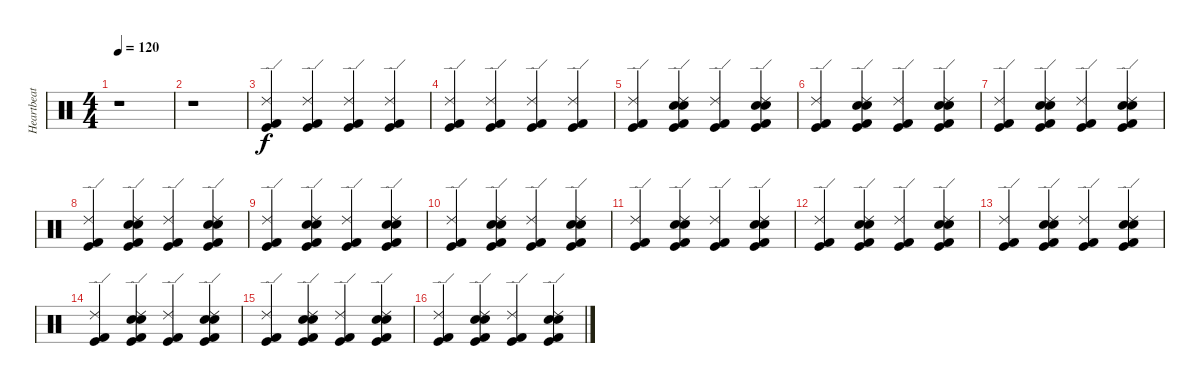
\track ("Heartbeat" "Heartbeat") {instrument percussion}
\staff {score}
\articulation defaults
\ts (4 4)
\tempo 120
\clef neutral
\ks c
r.1{dy f} |
r.1 |
("Kick (hit)" "Kick (hit) 2" "Ride (edge) 2").4 ("Kick (hit)" "Kick (hit) 2" "Ride (edge) 2").4 ("Kick (hit)" "Kick (hit) 2" "Ride (edge) 2").4 ("Kick (hit)" "Kick (hit) 2" "Ride (edge) 2").4 |
("Kick (hit)" "Kick (hit) 2" "Ride (edge) 2").4 ("Kick (hit)" "Kick (hit) 2" "Ride (edge) 2").4 ("Kick (hit)" "Kick (hit) 2" "Ride (edge) 2").4 ("Kick (hit)" "Kick (hit) 2" "Ride (edge) 2").4 |
("Kick (hit)" "Kick (hit) 2" "Ride (edge) 2").4 ("Kick (hit)" "Kick (hit) 2" "Electric Snare (hit)" "Snare (hit) 2" "Ride (edge) 2").4 ("Kick (hit)" "Kick (hit) 2" "Ride (edge) 2").4 ("Kick (hit)" "Kick (hit) 2" "Electric Snare (hit)" "Snare (hit) 2" "Ride (edge) 2").4 |
("Kick (hit)" "Kick (hit) 2" "Ride (edge) 2").4 ("Kick (hit)" "Kick (hit) 2" "Electric Snare (hit)" "Snare (hit) 2" "Ride (edge) 2").4 ("Kick (hit)" "Kick (hit) 2" "Ride (edge) 2").4 ("Kick (hit)" "Kick (hit) 2" "Electric Snare (hit)" "Snare (hit) 2" "Ride (edge) 2").4 |
("Kick (hit)" "Kick (hit) 2" "Ride (edge) 2").4 ("Kick (hit)" "Kick (hit) 2" "Electric Snare (hit)" "Snare (hit) 2" "Ride (edge) 2").4 ("Kick (hit)" "Kick (hit) 2" "Ride (edge) 2").4 ("Kick (hit)" "Kick (hit) 2" "Electric Snare (hit)" "Snare (hit) 2" "Ride (edge) 2").4 |
("Kick (hit)" "Kick (hit) 2" "Ride (edge) 2").4 ("Kick (hit)" "Kick (hit) 2" "Electric Snare (hit)" "Snare (hit) 2" "Ride (edge) 2").4 ("Kick (hit)" "Kick (hit) 2" "Ride (edge) 2").4 ("Kick (hit)" "Kick (hit) 2" "Electric Snare (hit)" "Snare (hit) 2" "Ride (edge) 2").4 |
("Kick (hit)" "Kick (hit) 2" "Ride (edge) 2").4 ("Kick (hit)" "Kick (hit) 2" "Electric Snare (hit)" "Snare (hit) 2" "Ride (edge) 2").4 ("Kick (hit)" "Kick (hit) 2" "Ride (edge) 2").4 ("Kick (hit)" "Kick (hit) 2" "Electric Snare (hit)" "Snare (hit) 2" "Ride (edge) 2").4 |
("Kick (hit)" "Kick (hit) 2" "Ride (edge) 2").4 ("Kick (hit)" "Kick (hit) 2" "Electric Snare (hit)" "Snare (hit) 2" "Ride (edge) 2").4 ("Kick (hit)" "Kick (hit) 2" "Ride (edge) 2").4 ("Kick (hit)" "Kick (hit) 2" "Electric Snare (hit)" "Snare (hit) 2" "Ride (edge) 2").4 |
("Kick (hit)" "Kick (hit) 2" "Ride (edge) 2").4 ("Kick (hit)" "Kick (hit) 2" "Electric Snare (hit)" "Snare (hit) 2" "Ride (edge) 2").4 ("Kick (hit)" "Kick (hit) 2" "Ride (edge) 2").4 ("Kick (hit)" "Kick (hit) 2" "Electric Snare (hit)" "Snare (hit) 2" "Ride (edge) 2").4 |
("Kick (hit)" "Kick (hit) 2" "Ride (edge) 2").4 ("Kick (hit)" "Kick (hit) 2" "Electric Snare (hit)" "Snare (hit) 2" "Ride (edge) 2").4 ("Kick (hit)" "Kick (hit) 2" "Ride (edge) 2").4 ("Kick (hit)" "Kick (hit) 2" "Electric Snare (hit)" "Snare (hit) 2" "Ride (edge) 2").4 |
("Kick (hit)" "Kick (hit) 2" "Ride (edge) 2").4 ("Kick (hit)" "Kick (hit) 2" "Electric Snare (hit)" "Snare (hit) 2" "Ride (edge) 2").4 ("Kick (hit)" "Kick (hit) 2" "Ride (edge) 2").4 ("Kick (hit)" "Kick (hit) 2" "Electric Snare (hit)" "Snare (hit) 2" "Ride (edge) 2").4 |
("Kick (hit)" "Kick (hit) 2" "Ride (edge) 2").4 ("Kick (hit)" "Kick (hit) 2" "Electric Snare (hit)" "Snare (hit) 2" "Ride (edge) 2").4 ("Kick (hit)" "Kick (hit) 2" "Ride (edge) 2").4 ("Kick (hit)" "Kick (hit) 2" "Electric Snare (hit)" "Snare (hit) 2" "Ride (edge) 2").4 |
("Kick (hit)" "Kick (hit) 2" "Ride (edge) 2").4 ("Kick (hit)" "Kick (hit) 2" "Electric Snare (hit)" "Snare (hit) 2" "Ride (edge) 2").4 ("Kick (hit)" "Kick (hit) 2" "Ride (edge) 2").4 ("Kick (hit)" "Kick (hit) 2" "Electric Snare (hit)" "Snare (hit) 2" "Ride (edge) 2").4 |
("Kick (hit)" "Kick (hit) 2" "Ride (edge) 2").4 ("Kick (hit)" "Kick (hit) 2" "Electric Snare (hit)" "Snare (hit) 2" "Ride (edge) 2").4 ("Kick (hit)" "Kick (hit) 2" "Ride (edge) 2").4 ("Kick (hit)" "Kick (hit) 2" "Electric Snare (hit)" "Snare (hit) 2" "Ride (edge) 2").4
